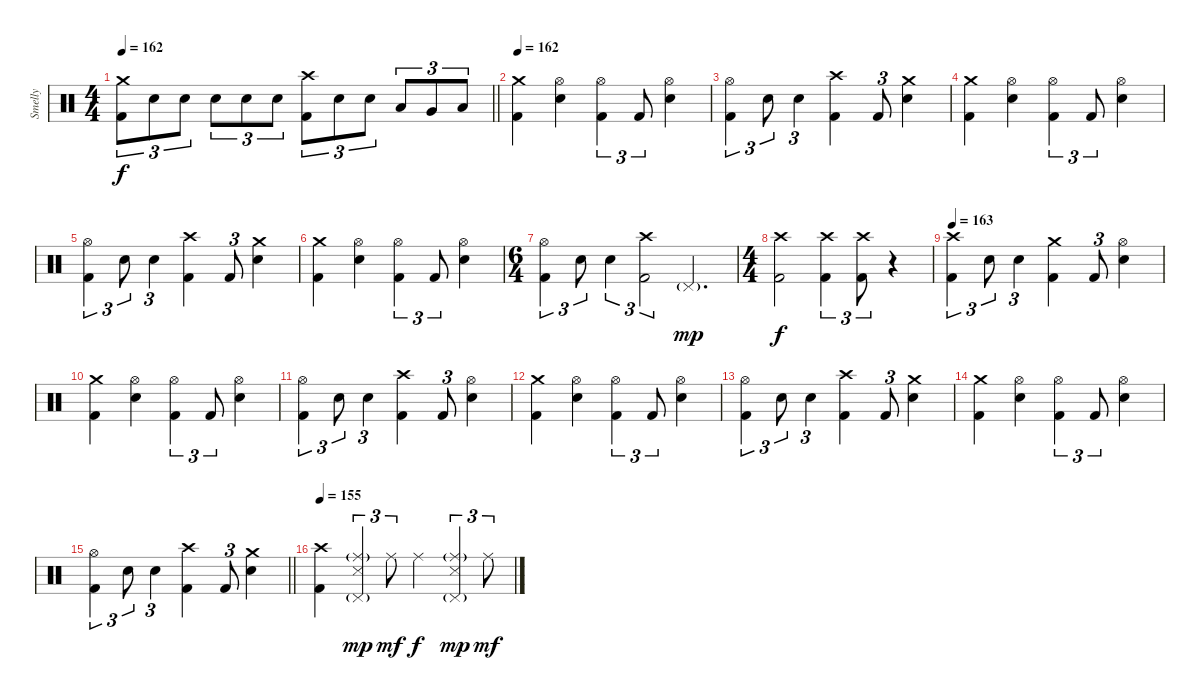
\track ("Smelly" "Smelly") {instrument percussion}
\staff {score}
\articulation defaults
\ts (4 4)
\tempo 162
\clef neutral
\barLineRight lightlight
\ks c
("Crash medium (hit)" "Kick (hit) 2").8{tu (3 2) dy f} "Electric Snare (hit)".8{tu (3 2)} "Electric Snare (hit)".8{tu (3 2)} "Electric Snare (hit)".8{tu (3 2)} "Electric Snare (hit)".8{tu (3 2)} "Electric Snare (hit)".8{tu (3 2)} ("Crash high (hit)" "Kick (hit) 2").8{tu (3 2)} "Electric Snare (hit)".8{tu (3 2)} "Electric Snare (hit)".8{tu (3 2)} "Low Tom (hit)".8{tu (3 2)} "Very Low Tom (hit)".8{tu (3 2)} "Low Floor Tom (hit)".8{tu (3 2)} |
\section ("" "")
\tempo 162
("Crash medium (hit)" "Kick (hit) 2").4 ("Hi-Hat (open)" "Electric Snare (hit)").4 ("Hi-Hat (open)" "Kick (hit) 2").4{tu (3 2)} "Kick (hit) 2".8{tu (3 2)} ("Hi-Hat (open)" "Electric Snare (hit)").4 |
("Hi-Hat (open)" "Kick (hit) 2").4{tu (3 2)} "Electric Snare (hit)".8{tu (3 2)} "Electric Snare (hit)".4{tu (3 2)} ("Crash high (hit)" "Kick (hit) 2").4 "Kick (hit) 2".8{tu (3 2)} ("Crash medium (hit)" "Electric Snare (hit)").4 |
("Crash medium (hit)" "Kick (hit) 2").4 ("Hi-Hat (open)" "Electric Snare (hit)").4 ("Hi-Hat (open)" "Kick (hit) 2").4{tu (3 2)} "Kick (hit) 2".8{tu (3 2)} ("Hi-Hat (open)" "Electric Snare (hit)").4 |
("Hi-Hat (open)" "Kick (hit) 2").4{tu (3 2)} "Electric Snare (hit)".8{tu (3 2)} "Electric Snare (hit)".4{tu (3 2)} ("Crash high (hit)" "Kick (hit) 2").4 "Kick (hit) 2".8{tu (3 2)} ("Crash medium (hit)" "Electric Snare (hit)").4 |
("Crash medium (hit)" "Kick (hit) 2").4 ("Hi-Hat (open)" "Electric Snare (hit)").4 ("Hi-Hat (open)" "Kick (hit) 2").4{tu (3 2)} "Kick (hit) 2".8{tu (3 2)} ("Hi-Hat (open)" "Electric Snare (hit)").4 |
\ts (6 4)
("Hi-Hat (open)" "Kick (hit) 2").4{tu (3 2)} "Electric Snare (hit)".8{tu (3 2)} "Electric Snare (hit)".4{tu (3 2)} ("Crash high (hit)" "Kick (hit) 2").2{tu (3 2)} "Pedal Hi-Hat (hit)"{g}.2{d dy mp} |
\ts (4 4)
("Crash high (hit)" "Kick (hit) 2").2{dy f} ("Crash high (hit)" "Kick (hit) 2").4{tu (3 2)} ("Crash high (hit)" "Kick (hit) 2").8{tu (3 2)} r.4 |
\tempo 163
("Crash high (hit)" "Kick (hit) 2").4{tu (3 2)} "Electric Snare (hit)".8{tu (3 2)} "Electric Snare (hit)".4{tu (3 2)} ("Crash medium (hit)" "Kick (hit) 2").4 "Kick (hit) 2".8{tu (3 2)} ("Hi-Hat (open)" "Electric Snare (hit)").4 |
("Crash medium (hit)" "Kick (hit) 2").4 ("Hi-Hat (open)" "Electric Snare (hit)").4 ("Hi-Hat (open)" "Kick (hit) 2").4{tu (3 2)} "Kick (hit) 2".8{tu (3 2)} ("Hi-Hat (open)" "Electric Snare (hit)").4 |
("Hi-Hat (open)" "Kick (hit) 2").4{tu (3 2)} "Electric Snare (hit)".8{tu (3 2)} "Electric Snare (hit)".4{tu (3 2)} ("Crash high (hit)" "Kick (hit) 2").4 "Kick (hit) 2".8{tu (3 2)} ("Hi-Hat (open)" "Electric Snare (hit)").4 |
("Crash medium (hit)" "Kick (hit) 2").4 ("Hi-Hat (open)" "Electric Snare (hit)").4 ("Hi-Hat (open)" "Kick (hit) 2").4{tu (3 2)} "Kick (hit) 2".8{tu (3 2)} ("Hi-Hat (open)" "Electric Snare (hit)").4 |
("Hi-Hat (open)" "Kick (hit) 2").4{tu (3 2)} "Electric Snare (hit)".8{tu (3 2)} "Electric Snare (hit)".4{tu (3 2)} ("Crash high (hit)" "Kick (hit) 2").4 "Kick (hit) 2".8{tu (3 2)} ("Crash medium (hit)" "Electric Snare (hit)").4 |
("Crash medium (hit)" "Kick (hit) 2").4 ("Hi-Hat (open)" "Electric Snare (hit)").4 ("Hi-Hat (open)" "Kick (hit) 2").4{tu (3 2)} "Kick (hit) 2".8{tu (3 2)} ("Hi-Hat (open)" "Electric Snare (hit)").4 |
\barLineRight lightlight
("Hi-Hat (open)" "Kick (hit) 2").4{tu (3 2)} "Electric Snare (hit)".8{tu (3 2)} "Electric Snare (hit)".4{tu (3 2)} ("Crash high (hit)" "Kick (hit) 2").4 "Kick (hit) 2".8{tu (3 2)} ("Crash medium (hit)" "Electric Snare (hit)").4 |
\section ("" "")
\tempo 155
("Crash high (hit)" "Kick (hit) 2").4 ("Ride (middle)"{g} "Pedal Hi-Hat (hit)"{g} "Snare (side stick) 3").4{tu (3 2) dy mp} "Ride (middle)".8{tu (3 2) dy mf} "Ride (middle)".4{dy f} ("Ride (middle)"{g} "Pedal Hi-Hat (hit)"{g} "Snare (side stick) 3").4{tu (3 2) dy mp} "Ride (middle)".8{tu (3 2) dy mf}
